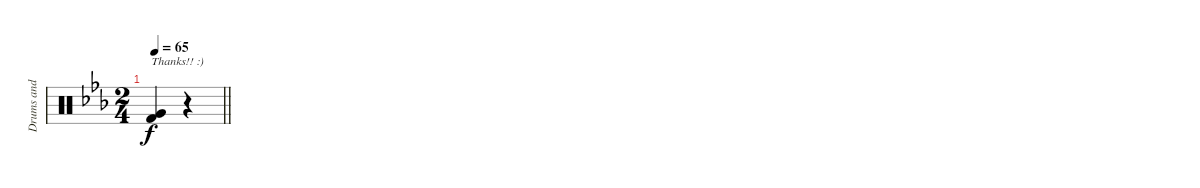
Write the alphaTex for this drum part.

\track ("Drums and percussion" "Drums and ") {instrument percussion}
\staff {score}
\articulation defaults
\ts (2 4)
\tempo 65
\clef neutral
\barLineRight lightlight
\ks eb
("Very Low Tom (hit)" "Kick (hit) 2").4{txt "Thanks!! :)" dy f} r.4
